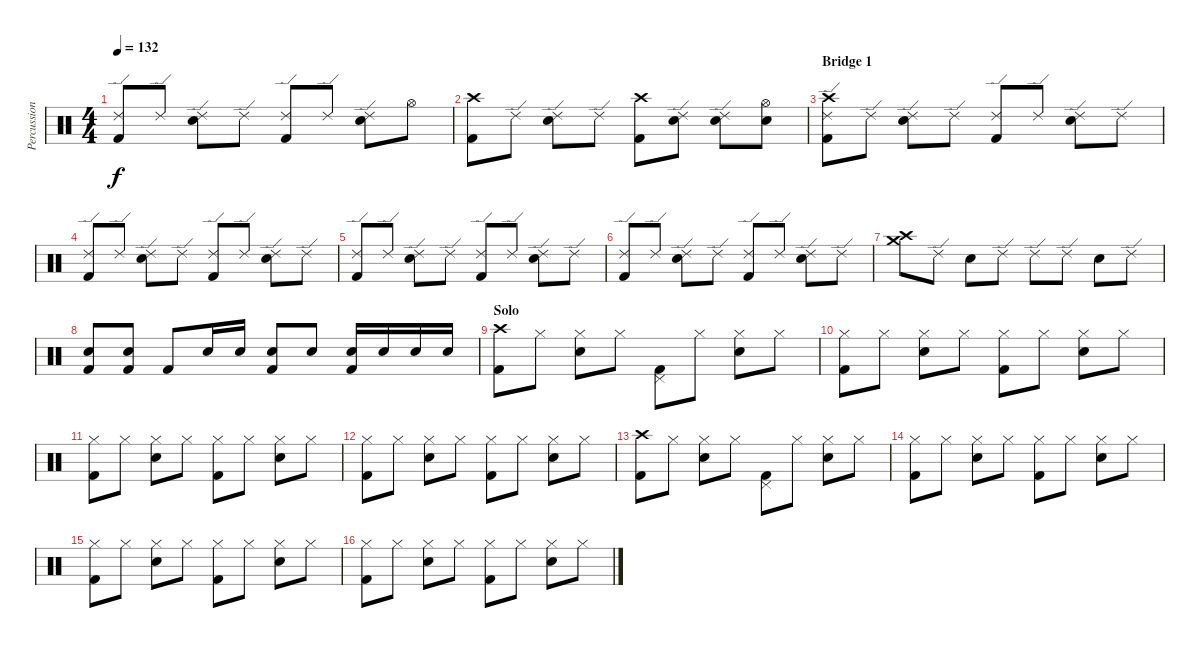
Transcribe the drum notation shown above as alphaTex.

\track ("Percussion" "Percussion") {instrument percussion}
\staff {score}
\articulation defaults
\ts (4 4)
\tempo 132
\clef neutral
\ks c
("Ride (edge) 2" "Kick (hit) 2").8{dy f} "Ride (edge) 2".8 ("Ride (edge) 2" "Snare (hit) 2").8 "Ride (edge) 2".8 ("Ride (edge) 2" "Kick (hit) 2").8 "Ride (edge) 2".8 ("Ride (edge) 2" "Snare (hit) 2").8 "Hi-Hat (open)".8 |
("Crash high (hit)" "Kick (hit) 2").8 "Ride (edge) 2".8 ("Ride (edge) 2" "Snare (hit) 2").8 "Ride (edge) 2".8 ("Crash high (hit)" "Kick (hit) 2").8 ("Ride (edge) 2" "Snare (hit) 2").8 ("Ride (edge) 2" "Snare (hit) 2").8 ("Hi-Hat (open)" "Snare (hit) 2").8 |
\section ("" "Bridge 1")
("Ride (edge) 2" "Crash high (hit)" "Kick (hit) 2").8 "Ride (edge) 2".8 ("Ride (edge) 2" "Snare (hit) 2").8 "Ride (edge) 2".8 ("Ride (edge) 2" "Kick (hit) 2").8 "Ride (edge) 2".8 ("Ride (edge) 2" "Snare (hit) 2").8 "Ride (edge) 2".8 |
("Ride (edge) 2" "Kick (hit) 2").8 "Ride (edge) 2".8 ("Ride (edge) 2" "Snare (hit) 2").8 "Ride (edge) 2".8 ("Ride (edge) 2" "Kick (hit) 2").8 "Ride (edge) 2".8 ("Ride (edge) 2" "Snare (hit) 2").8 "Ride (edge) 2".8 |
("Ride (edge) 2" "Kick (hit) 2").8 "Ride (edge) 2".8 ("Ride (edge) 2" "Snare (hit) 2").8 "Ride (edge) 2".8 ("Ride (edge) 2" "Kick (hit) 2").8 "Ride (edge) 2".8 ("Ride (edge) 2" "Snare (hit) 2").8 "Ride (edge) 2".8 |
("Ride (edge) 2" "Kick (hit) 2").8 "Ride (edge) 2".8 ("Ride (edge) 2" "Snare (hit) 2").8 "Ride (edge) 2".8 ("Ride (edge) 2" "Kick (hit) 2").8 "Ride (edge) 2".8 ("Ride (edge) 2" "Snare (hit) 2").8 "Ride (edge) 2".8 |
("Crash high (hit)" "Crash medium (hit)").8 "Ride (edge) 2".8 "Snare (hit) 2".8 "Ride (edge) 2".8 "Ride (edge) 2".8 "Ride (edge) 2".8 "Snare (hit) 2".8 "Ride (edge) 2".8 |
("Snare (hit) 2" "Kick (hit) 2").8 ("Snare (hit) 2" "Kick (hit) 2").8 "Kick (hit) 2".8 "Snare (hit) 2".16 "Snare (hit) 2".16 ("Snare (hit) 2" "Kick (hit) 2").8 "Snare (hit) 2".8 ("Snare (hit) 2" "Kick (hit) 2").16 "Snare (hit) 2".16 "Snare (hit) 2".16 "Snare (hit) 2".16 |
\section ("" "Solo")
("Crash high (hit)" "Kick (hit) 2").8 "Hi-Hat (closed)".8 ("Hi-Hat (closed)" "Snare (hit) 2").8 "Hi-Hat (closed)".8 ("Pedal Hi-Hat (hit)" "Kick (hit) 2").8 "Hi-Hat (closed)".8 ("Hi-Hat (closed)" "Snare (hit) 2").8 "Hi-Hat (closed)".8 |
("Hi-Hat (closed)" "Kick (hit) 2").8 "Hi-Hat (closed)".8 ("Hi-Hat (closed)" "Snare (hit) 2").8 "Hi-Hat (closed)".8 ("Hi-Hat (closed)" "Kick (hit) 2").8 "Hi-Hat (closed)".8 ("Hi-Hat (closed)" "Snare (hit) 2").8 "Hi-Hat (closed)".8 |
("Hi-Hat (closed)" "Kick (hit) 2").8 "Hi-Hat (closed)".8 ("Hi-Hat (closed)" "Snare (hit) 2").8 "Hi-Hat (closed)".8 ("Hi-Hat (closed)" "Kick (hit) 2").8 "Hi-Hat (closed)".8 ("Hi-Hat (closed)" "Snare (hit) 2").8 "Hi-Hat (closed)".8 |
("Hi-Hat (closed)" "Kick (hit) 2").8 "Hi-Hat (closed)".8 ("Hi-Hat (closed)" "Snare (hit) 2").8 "Hi-Hat (closed)".8 ("Hi-Hat (closed)" "Kick (hit) 2").8 "Hi-Hat (closed)".8 ("Hi-Hat (closed)" "Snare (hit) 2").8 "Hi-Hat (closed)".8 |
("Crash high (hit)" "Kick (hit) 2").8 "Hi-Hat (closed)".8 ("Hi-Hat (closed)" "Snare (hit) 2").8 "Hi-Hat (closed)".8 ("Pedal Hi-Hat (hit)" "Kick (hit) 2").8 "Hi-Hat (closed)".8 ("Hi-Hat (closed)" "Snare (hit) 2").8 "Hi-Hat (closed)".8 |
("Hi-Hat (closed)" "Kick (hit) 2").8 "Hi-Hat (closed)".8 ("Hi-Hat (closed)" "Snare (hit) 2").8 "Hi-Hat (closed)".8 ("Hi-Hat (closed)" "Kick (hit) 2").8 "Hi-Hat (closed)".8 ("Hi-Hat (closed)" "Snare (hit) 2").8 "Hi-Hat (closed)".8 |
("Hi-Hat (closed)" "Kick (hit) 2").8 "Hi-Hat (closed)".8 ("Hi-Hat (closed)" "Snare (hit) 2").8 "Hi-Hat (closed)".8 ("Hi-Hat (closed)" "Kick (hit) 2").8 "Hi-Hat (closed)".8 ("Hi-Hat (closed)" "Snare (hit) 2").8 "Hi-Hat (closed)".8 |
("Hi-Hat (closed)" "Kick (hit) 2").8 "Hi-Hat (closed)".8 ("Hi-Hat (closed)" "Snare (hit) 2").8 "Hi-Hat (closed)".8 ("Hi-Hat (closed)" "Kick (hit) 2").8 "Hi-Hat (closed)".8 ("Hi-Hat (closed)" "Snare (hit) 2").8 "Hi-Hat (closed)".8
